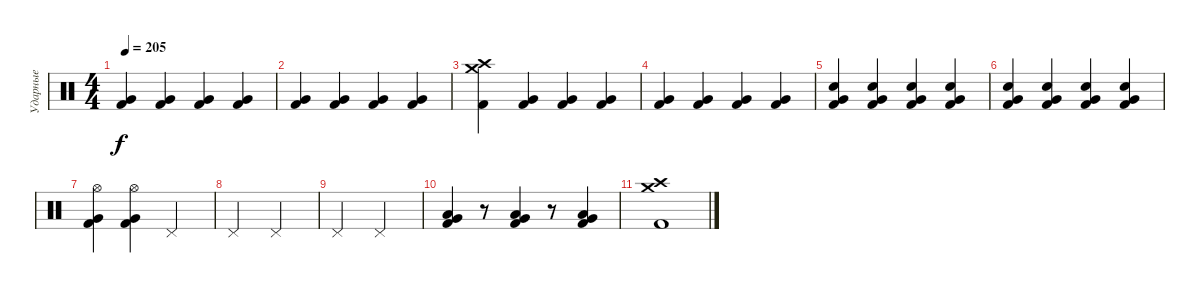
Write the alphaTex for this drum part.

\track ("Ударные" "Ударные") {instrument percussion}
\staff {score}
\articulation defaults
\ts (4 4)
\tempo 205
\clef neutral
\ks c
("Very Low Tom (hit)" "Kick (hit) 2").4{dy f volume 8} ("Very Low Tom (hit)" "Kick (hit) 2").4 ("Very Low Tom (hit)" "Kick (hit) 2").4 ("Very Low Tom (hit)" "Kick (hit) 2").4 |
("Very Low Tom (hit)" "Kick (hit) 2").4 ("Very Low Tom (hit)" "Kick (hit) 2").4 ("Very Low Tom (hit)" "Kick (hit) 2").4 ("Very Low Tom (hit)" "Kick (hit) 2").4 |
("Crash medium (hit)" "Crash high (hit)" "Kick (hit) 2").4{volume 13} ("Very Low Tom (hit)" "Kick (hit) 2").4 ("Very Low Tom (hit)" "Kick (hit) 2").4 ("Very Low Tom (hit)" "Kick (hit) 2").4 |
("Very Low Tom (hit)" "Kick (hit) 2").4{volume 9} ("Very Low Tom (hit)" "Kick (hit) 2").4 ("Very Low Tom (hit)" "Kick (hit) 2").4 ("Very Low Tom (hit)" "Kick (hit) 2").4 |
("Electric Snare (hit)" "Very Low Tom (hit)" "Kick (hit) 2").4{volume 13} ("Electric Snare (hit)" "Very Low Tom (hit)" "Kick (hit) 2").4 ("Electric Snare (hit)" "Very Low Tom (hit)" "Kick (hit) 2").4 ("Electric Snare (hit)" "Very Low Tom (hit)" "Kick (hit) 2").4 |
("Electric Snare (hit)" "Very Low Tom (hit)" "Kick (hit) 2").4 ("Electric Snare (hit)" "Very Low Tom (hit)" "Kick (hit) 2").4 ("Electric Snare (hit)" "Very Low Tom (hit)" "Kick (hit) 2").4 ("Electric Snare (hit)" "Very Low Tom (hit)" "Kick (hit) 2").4 |
("Hi-Hat (open)" "Very Low Tom (hit)" "Kick (hit) 2").4{volume 13} ("Hi-Hat (open)" "Very Low Tom (hit)" "Kick (hit) 2").4 "Pedal Hi-Hat (hit)".2 |
"Pedal Hi-Hat (hit)".2 "Pedal Hi-Hat (hit)".2 |
"Pedal Hi-Hat (hit)".2 "Pedal Hi-Hat (hit)".2 |
("Very Low Tom (hit)" "Low Tom (hit)" "Kick (hit) 2").4 r.8 ("Very Low Tom (hit)" "Low Tom (hit)" "Kick (hit) 2").4 r.8 ("Very Low Tom (hit)" "Low Tom (hit)" "Kick (hit) 2").4 |
("Crash high (hit)" "Crash medium (hit)" "Kick (hit) 2").1
